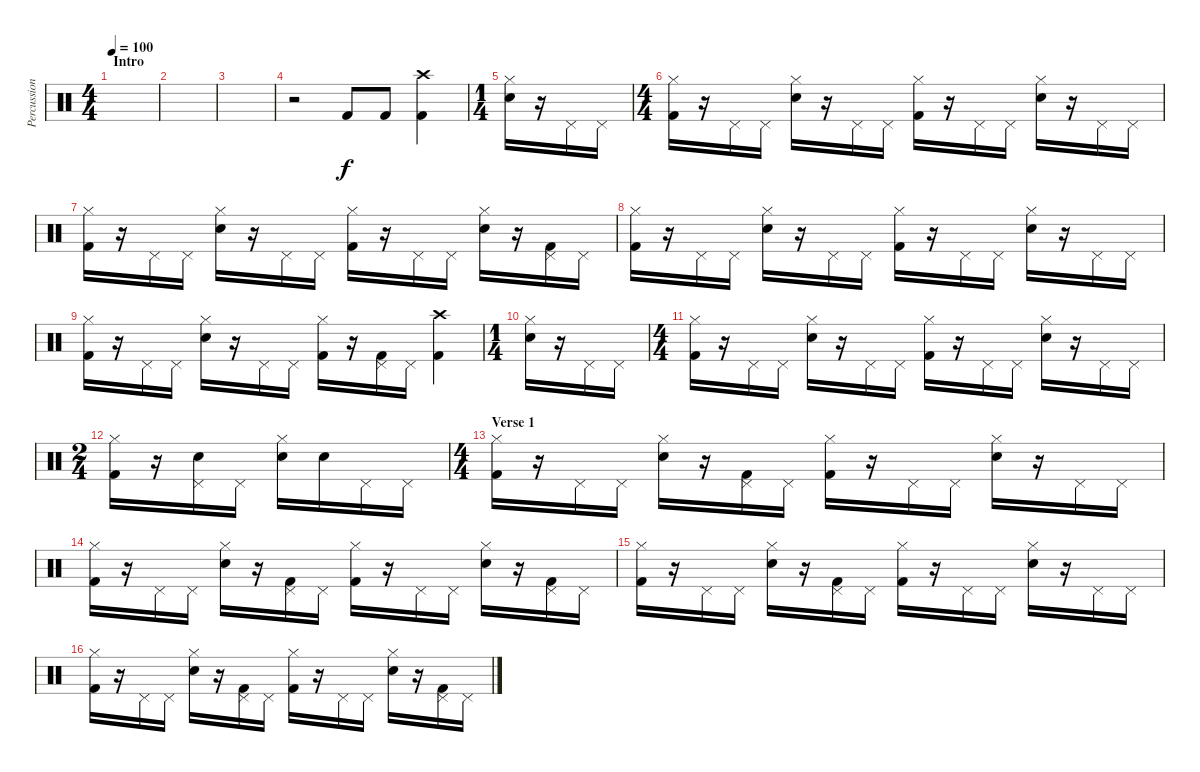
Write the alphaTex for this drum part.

\track ("Percussion" "Percussion") {instrument percussion}
\staff {score}
\articulation defaults
\ts (4 4)
\section ("" "Intro")
\tempo 100
\clef neutral
\ks c
|
|
|
r.2 "Kick (hit) 2".8 "Kick (hit) 2".8 ("Crash high (hit)" "Kick (hit) 2").4 |
\ts (1 4)
("Hi-Hat (closed)" "Snare (hit) 2").16 r.16 "Pedal Hi-Hat (hit)".16 "Pedal Hi-Hat (hit)".16 |
\ts (4 4)
("Hi-Hat (closed)" "Kick (hit) 2").16 r.16 "Pedal Hi-Hat (hit)".16 "Pedal Hi-Hat (hit)".16 ("Hi-Hat (closed)" "Snare (hit) 2").16 r.16 "Pedal Hi-Hat (hit)".16 "Pedal Hi-Hat (hit)".16 ("Hi-Hat (closed)" "Kick (hit) 2").16 r.16 "Pedal Hi-Hat (hit)".16 "Pedal Hi-Hat (hit)".16 ("Hi-Hat (closed)" "Snare (hit) 2").16 r.16 "Pedal Hi-Hat (hit)".16 "Pedal Hi-Hat (hit)".16 |
("Hi-Hat (closed)" "Kick (hit) 2").16 r.16 "Pedal Hi-Hat (hit)".16 "Pedal Hi-Hat (hit)".16 ("Hi-Hat (closed)" "Snare (hit) 2").16 r.16 "Pedal Hi-Hat (hit)".16 "Pedal Hi-Hat (hit)".16 ("Hi-Hat (closed)" "Kick (hit) 2").16 r.16 "Pedal Hi-Hat (hit)".16 "Pedal Hi-Hat (hit)".16 ("Hi-Hat (closed)" "Snare (hit) 2").16 r.16 ("Pedal Hi-Hat (hit)" "Kick (hit) 2").16 "Pedal Hi-Hat (hit)".16 |
("Hi-Hat (closed)" "Kick (hit) 2").16 r.16 "Pedal Hi-Hat (hit)".16 "Pedal Hi-Hat (hit)".16 ("Hi-Hat (closed)" "Snare (hit) 2").16 r.16 "Pedal Hi-Hat (hit)".16 "Pedal Hi-Hat (hit)".16 ("Hi-Hat (closed)" "Kick (hit) 2").16 r.16 "Pedal Hi-Hat (hit)".16 "Pedal Hi-Hat (hit)".16 ("Hi-Hat (closed)" "Snare (hit) 2").16 r.16 "Pedal Hi-Hat (hit)".16 "Pedal Hi-Hat (hit)".16 |
("Hi-Hat (closed)" "Kick (hit) 2").16 r.16 "Pedal Hi-Hat (hit)".16 "Pedal Hi-Hat (hit)".16 ("Hi-Hat (closed)" "Snare (hit) 2").16 r.16 "Pedal Hi-Hat (hit)".16 "Pedal Hi-Hat (hit)".16 ("Hi-Hat (closed)" "Kick (hit) 2").16 r.16 ("Pedal Hi-Hat (hit)" "Kick (hit) 2").16 "Pedal Hi-Hat (hit)".16 ("Crash high (hit)" "Kick (hit) 2").4 |
\ts (1 4)
("Hi-Hat (closed)" "Snare (hit) 2").16 r.16 "Pedal Hi-Hat (hit)".16 "Pedal Hi-Hat (hit)".16 |
\ts (4 4)
("Hi-Hat (closed)" "Kick (hit) 2").16 r.16 "Pedal Hi-Hat (hit)".16 "Pedal Hi-Hat (hit)".16 ("Hi-Hat (closed)" "Snare (hit) 2").16 r.16 "Pedal Hi-Hat (hit)".16 "Pedal Hi-Hat (hit)".16 ("Hi-Hat (closed)" "Kick (hit) 2").16 r.16 "Pedal Hi-Hat (hit)".16 "Pedal Hi-Hat (hit)".16 ("Hi-Hat (closed)" "Snare (hit) 2").16 r.16 "Pedal Hi-Hat (hit)".16 "Pedal Hi-Hat (hit)".16 |
\ts (2 4)
("Hi-Hat (closed)" "Kick (hit) 2").16 r.16 ("Pedal Hi-Hat (hit)" "Snare (hit) 2").16 "Pedal Hi-Hat (hit)".16 ("Hi-Hat (closed)" "Snare (hit) 2").16 "Snare (hit) 2".16 "Pedal Hi-Hat (hit)".16 "Pedal Hi-Hat (hit)".16 |
\ts (4 4)
\section ("" "Verse 1")
("Hi-Hat (closed)" "Kick (hit) 2").16 r.16 "Pedal Hi-Hat (hit)".16 "Pedal Hi-Hat (hit)".16 ("Hi-Hat (closed)" "Snare (hit) 2").16 r.16 ("Pedal Hi-Hat (hit)" "Kick (hit) 2").16 "Pedal Hi-Hat (hit)".16 ("Hi-Hat (closed)" "Kick (hit) 2").16 r.16 "Pedal Hi-Hat (hit)".16 "Pedal Hi-Hat (hit)".16 ("Hi-Hat (closed)" "Snare (hit) 2").16 r.16 "Pedal Hi-Hat (hit)".16 "Pedal Hi-Hat (hit)".16 |
("Hi-Hat (closed)" "Kick (hit) 2").16 r.16 "Pedal Hi-Hat (hit)".16 "Pedal Hi-Hat (hit)".16 ("Hi-Hat (closed)" "Snare (hit) 2").16 r.16 ("Pedal Hi-Hat (hit)" "Kick (hit) 2").16 "Pedal Hi-Hat (hit)".16 ("Hi-Hat (closed)" "Kick (hit) 2").16 r.16 "Pedal Hi-Hat (hit)".16 "Pedal Hi-Hat (hit)".16 ("Hi-Hat (closed)" "Snare (hit) 2").16 r.16 ("Pedal Hi-Hat (hit)" "Kick (hit) 2").16 "Pedal Hi-Hat (hit)".16 |
("Hi-Hat (closed)" "Kick (hit) 2").16 r.16 "Pedal Hi-Hat (hit)".16 "Pedal Hi-Hat (hit)".16 ("Hi-Hat (closed)" "Snare (hit) 2").16 r.16 ("Pedal Hi-Hat (hit)" "Kick (hit) 2").16 "Pedal Hi-Hat (hit)".16 ("Hi-Hat (closed)" "Kick (hit) 2").16 r.16 "Pedal Hi-Hat (hit)".16 "Pedal Hi-Hat (hit)".16 ("Hi-Hat (closed)" "Snare (hit) 2").16 r.16 "Pedal Hi-Hat (hit)".16 "Pedal Hi-Hat (hit)".16 |
("Hi-Hat (closed)" "Kick (hit) 2").16 r.16 "Pedal Hi-Hat (hit)".16 "Pedal Hi-Hat (hit)".16 ("Hi-Hat (closed)" "Snare (hit) 2").16 r.16 ("Pedal Hi-Hat (hit)" "Kick (hit) 2").16 "Pedal Hi-Hat (hit)".16 ("Hi-Hat (closed)" "Kick (hit) 2").16 r.16 "Pedal Hi-Hat (hit)".16 "Pedal Hi-Hat (hit)".16 ("Hi-Hat (closed)" "Snare (hit) 2").16 r.16 ("Pedal Hi-Hat (hit)" "Kick (hit) 2").16 "Pedal Hi-Hat (hit)".16
